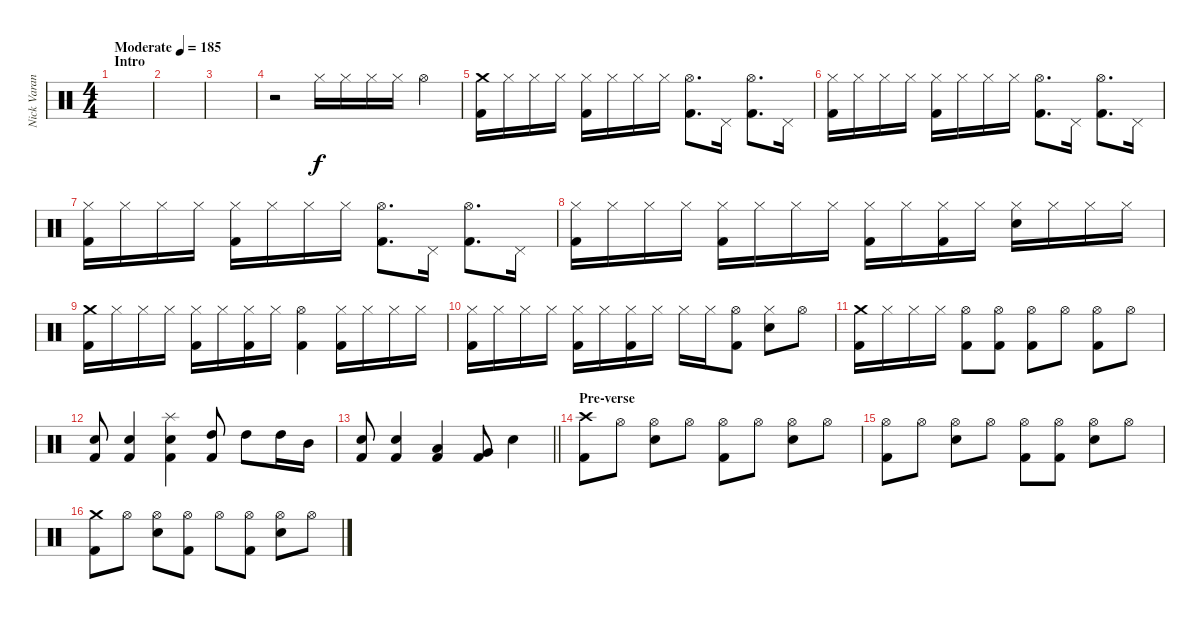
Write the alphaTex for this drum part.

\track ("Nick Varano (Drums)" "Nick Varan") {instrument percussion}
\staff {score}
\articulation defaults
\ts (4 4)
\section ("" "Intro")
\tempo (185 "Moderate")
\clef neutral
\ks c
|
|
|
r.2 "Hi-Hat (closed)".16 "Hi-Hat (closed)".16 "Hi-Hat (closed)".16 "Hi-Hat (closed)".16 "Hi-Hat (open)".4 |
("Crash medium (hit)" "Kick (hit) 2").16 "Hi-Hat (closed)".16 "Hi-Hat (closed)".16 "Hi-Hat (closed)".16 ("Hi-Hat (closed)" "Kick (hit) 2").16 "Hi-Hat (closed)".16 "Hi-Hat (closed)".16 "Hi-Hat (closed)".16 ("Hi-Hat (open)" "Kick (hit) 2").8{d} "Pedal Hi-Hat (hit)".16 ("Hi-Hat (open)" "Kick (hit) 2").8{d} "Pedal Hi-Hat (hit)".16 |
("Hi-Hat (closed)" "Kick (hit) 2").16 "Hi-Hat (closed)".16 "Hi-Hat (closed)".16 "Hi-Hat (closed)".16 ("Hi-Hat (closed)" "Kick (hit) 2").16 "Hi-Hat (closed)".16 "Hi-Hat (closed)".16 "Hi-Hat (closed)".16 ("Hi-Hat (open)" "Kick (hit) 2").8{d} "Pedal Hi-Hat (hit)".16 ("Hi-Hat (open)" "Kick (hit) 2").8{d} "Pedal Hi-Hat (hit)".16 |
("Hi-Hat (closed)" "Kick (hit) 2").16 "Hi-Hat (closed)".16 "Hi-Hat (closed)".16 "Hi-Hat (closed)".16 ("Hi-Hat (closed)" "Kick (hit) 2").16 "Hi-Hat (closed)".16 "Hi-Hat (closed)".16 "Hi-Hat (closed)".16 ("Hi-Hat (open)" "Kick (hit) 2").8{d} "Pedal Hi-Hat (hit)".16 ("Hi-Hat (open)" "Kick (hit) 2").8{d} "Pedal Hi-Hat (hit)".16 |
("Hi-Hat (closed)" "Kick (hit) 2").16 "Hi-Hat (closed)".16 "Hi-Hat (closed)".16 "Hi-Hat (closed)".16 ("Hi-Hat (closed)" "Kick (hit) 2").16 "Hi-Hat (closed)".16 "Hi-Hat (closed)".16 "Hi-Hat (closed)".16 ("Hi-Hat (closed)" "Kick (hit) 2").16 "Hi-Hat (closed)".16 ("Hi-Hat (closed)" "Kick (hit) 2").16 "Hi-Hat (closed)".16 ("Hi-Hat (closed)" "Electric Snare (hit)").16 "Hi-Hat (closed)".16 "Hi-Hat (closed)".16 "Hi-Hat (closed)".16 |
("Crash medium (hit)" "Kick (hit) 2").16 "Hi-Hat (closed)".16 "Hi-Hat (closed)".16 "Hi-Hat (closed)".16 ("Hi-Hat (closed)" "Kick (hit) 2").16 "Hi-Hat (closed)".16 ("Hi-Hat (closed)" "Kick (hit) 2").16 "Hi-Hat (closed)".16 ("Hi-Hat (open)" "Kick (hit) 2").4 ("Hi-Hat (closed)" "Kick (hit) 2").16 "Hi-Hat (closed)".16 "Hi-Hat (closed)".16 "Hi-Hat (closed)".16 |
("Hi-Hat (closed)" "Kick (hit) 2").16 "Hi-Hat (closed)".16 "Hi-Hat (closed)".16 "Hi-Hat (closed)".16 ("Hi-Hat (closed)" "Kick (hit) 2").16 "Hi-Hat (closed)".16 ("Hi-Hat (closed)" "Kick (hit) 2").16 "Hi-Hat (closed)".16 "Hi-Hat (closed)".16 "Hi-Hat (closed)".16 ("Hi-Hat (open)" "Kick (hit) 2").8 ("Hi-Hat (closed)" "Electric Snare (hit)").8 "Hi-Hat (open)".8 |
("Crash medium (hit)" "Kick (hit) 2").16 "Hi-Hat (closed)".16 "Hi-Hat (closed)".16 "Hi-Hat (closed)".16 ("Hi-Hat (open)" "Kick (hit) 2").8 ("Hi-Hat (open)" "Kick (hit) 2").8 ("Hi-Hat (open)" "Kick (hit) 2").8 "Hi-Hat (open)".8 ("Hi-Hat (open)" "Kick (hit) 2").8 "Hi-Hat (open)".8 |
("Electric Snare (hit)" "Kick (hit) 2").8 ("Electric Snare (hit)" "Kick (hit) 2").4 ("Splash (hit)" "Electric Snare (hit)" "Kick (hit) 2").4 ("High Tom (hit)" "Kick (hit) 2").8 "High Tom (hit)".8 "High Tom (hit)".16 "Mid Tom (hit)".16 |
\barLineRight lightlight
("Electric Snare (hit)" "Kick (hit) 2").8 ("Electric Snare (hit)" "Kick (hit) 2").4 ("Low Tom (hit)" "Kick (hit) 2").4 ("Very Low Tom (hit)" "Kick (hit) 2").8 "Electric Snare (hit)".4 |
\section ("" "Pre-verse")
("Crash high (hit)" "Kick (hit) 2").8 "Hi-Hat (open)".8 ("Hi-Hat (open)" "Electric Snare (hit)").8 "Hi-Hat (open)".8 ("Hi-Hat (open)" "Kick (hit) 2").8 "Hi-Hat (open)".8 ("Hi-Hat (open)" "Electric Snare (hit)").8 "Hi-Hat (open)".8 |
("Hi-Hat (open)" "Kick (hit) 2").8 "Hi-Hat (open)".8 ("Hi-Hat (open)" "Electric Snare (hit)").8 "Hi-Hat (open)".8 ("Hi-Hat (open)" "Kick (hit) 2").8 ("Hi-Hat (open)" "Kick (hit) 2").8 ("Hi-Hat (open)" "Electric Snare (hit)").8 "Hi-Hat (open)".8 |
("Crash medium (hit)" "Kick (hit) 2").8 "Hi-Hat (open)".8 ("Hi-Hat (open)" "Electric Snare (hit)").8 ("Hi-Hat (open)" "Kick (hit) 2").8 "Hi-Hat (open)".8 ("Hi-Hat (open)" "Kick (hit) 2").8 ("Hi-Hat (open)" "Electric Snare (hit)").8 "Hi-Hat (open)".8
